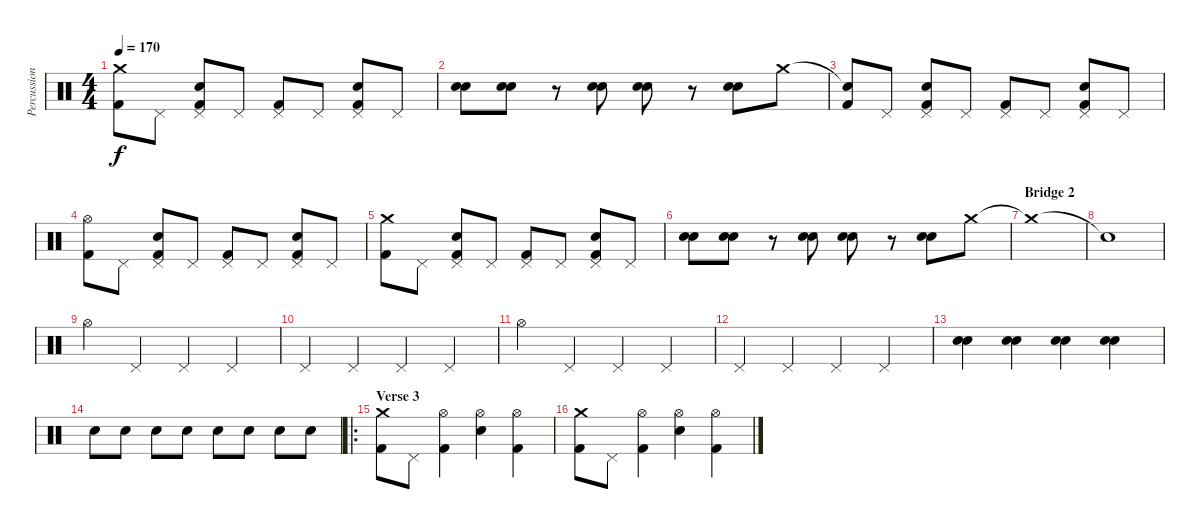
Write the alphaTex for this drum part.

\track ("Percussion" "Percussion") {instrument percussion}
\staff {score}
\articulation defaults
\ts (4 4)
\tempo 170
\clef neutral
\ks c
("Crash medium (hit)" "Kick (hit) 2").8{dy f} "Pedal Hi-Hat (hit)".8 ("Pedal Hi-Hat (hit)" "Electric Snare (hit)" "Kick (hit) 2").8 "Pedal Hi-Hat (hit)".8 ("Pedal Hi-Hat (hit)" "Kick (hit) 2").8 "Pedal Hi-Hat (hit)".8 ("Pedal Hi-Hat (hit)" "Electric Snare (hit)" "Kick (hit) 2").8 "Pedal Hi-Hat (hit)".8 |
("Electric Snare (hit)" "Electric Snare (hit)").8 ("Electric Snare (hit)" "Electric Snare (hit)").8 r.8 ("Electric Snare (hit)" "Electric Snare (hit)").8 ("Electric Snare (hit)" "Electric Snare (hit)").8 r.8 ("Electric Snare (hit)" "Electric Snare (hit)").8 "Crash medium (hit)".8 |
("Snare (hit)"{t} "Kick (hit) 2").8 "Pedal Hi-Hat (hit)".8 ("Pedal Hi-Hat (hit)" "Electric Snare (hit)" "Kick (hit) 2").8 "Pedal Hi-Hat (hit)".8 ("Pedal Hi-Hat (hit)" "Kick (hit) 2").8 "Pedal Hi-Hat (hit)".8 ("Pedal Hi-Hat (hit)" "Electric Snare (hit)" "Kick (hit) 2").8 "Pedal Hi-Hat (hit)".8 |
("Hi-Hat (open)" "Kick (hit) 2").8 "Pedal Hi-Hat (hit)".8 ("Pedal Hi-Hat (hit)" "Electric Snare (hit)" "Kick (hit) 2").8 "Pedal Hi-Hat (hit)".8 ("Pedal Hi-Hat (hit)" "Kick (hit) 2").8 "Pedal Hi-Hat (hit)".8 ("Pedal Hi-Hat (hit)" "Electric Snare (hit)" "Kick (hit) 2").8 "Pedal Hi-Hat (hit)".8 |
("Crash medium (hit)" "Kick (hit) 2").8 "Pedal Hi-Hat (hit)".8 ("Pedal Hi-Hat (hit)" "Electric Snare (hit)" "Kick (hit) 2").8 "Pedal Hi-Hat (hit)".8 ("Pedal Hi-Hat (hit)" "Kick (hit) 2").8 "Pedal Hi-Hat (hit)".8 ("Pedal Hi-Hat (hit)" "Electric Snare (hit)" "Kick (hit) 2").8 "Pedal Hi-Hat (hit)".8 |
("Electric Snare (hit)" "Electric Snare (hit)").8 ("Electric Snare (hit)" "Electric Snare (hit)").8 r.8 ("Electric Snare (hit)" "Electric Snare (hit)").8 ("Electric Snare (hit)" "Electric Snare (hit)").8 r.8 ("Electric Snare (hit)" "Electric Snare (hit)").8 "Crash medium (hit)".8 |
\section ("" "Bridge 2")
"Crash medium (hit)"{t}.1 |
"Snare (hit)"{t}.1 |
"Hi-Hat (open)".4 "Pedal Hi-Hat (hit)".4 "Pedal Hi-Hat (hit)".4 "Pedal Hi-Hat (hit)".4 |
"Pedal Hi-Hat (hit)".4 "Pedal Hi-Hat (hit)".4 "Pedal Hi-Hat (hit)".4 "Pedal Hi-Hat (hit)".4 |
"Hi-Hat (open)".4 "Pedal Hi-Hat (hit)".4 "Pedal Hi-Hat (hit)".4 "Pedal Hi-Hat (hit)".4 |
"Pedal Hi-Hat (hit)".4 "Pedal Hi-Hat (hit)".4 "Pedal Hi-Hat (hit)".4 "Pedal Hi-Hat (hit)".4 |
("Electric Snare (hit)" "Electric Snare (hit)").4 ("Electric Snare (hit)" "Electric Snare (hit)").4 ("Electric Snare (hit)" "Electric Snare (hit)").4 ("Electric Snare (hit)" "Electric Snare (hit)").4 |
"Electric Snare (hit)".8 "Electric Snare (hit)".8 "Electric Snare (hit)".8 "Electric Snare (hit)".8 "Electric Snare (hit)".8 "Electric Snare (hit)".8 "Electric Snare (hit)".8 "Electric Snare (hit)".8 |
\ro
\section ("" "Verse 3")
("Crash medium (hit)" "Kick (hit) 2").8 "Pedal Hi-Hat (hit)".8 ("Hi-Hat (open)" "Kick (hit) 2").4 ("Hi-Hat (open)" "Electric Snare (hit)").4 ("Hi-Hat (open)" "Kick (hit) 2").4 |
("Crash medium (hit)" "Kick (hit) 2").8 "Pedal Hi-Hat (hit)".8 ("Hi-Hat (open)" "Kick (hit) 2").4 ("Hi-Hat (open)" "Electric Snare (hit)").4 ("Hi-Hat (open)" "Kick (hit) 2").4
